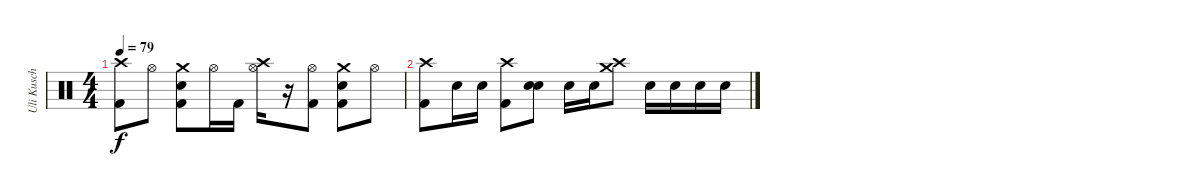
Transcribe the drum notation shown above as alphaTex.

\track ("Uli Kusch" "Uli Kusch") {instrument percussion}
\staff {score}
\articulation defaults
\ts (4 4)
\tempo 79
\clef neutral
\ks c
("Kick (hit) 2" "Crash high (hit)").8{dy f} "Hi-Hat (open)".8 ("Snare (hit) 2" "Kick (hit) 2" "Crash medium (hit)").8 "Hi-Hat (open)".16 "Kick (hit) 2".16 ("Hi-Hat (open)" "Crash high (hit)").16 r.16 ("Kick (hit) 2" "Hi-Hat (open)").8 ("Kick (hit) 2" "Snare (hit) 2" "Crash medium (hit)").8 "Hi-Hat (open)".8 |
("Kick (hit) 2" "Crash high (hit)").8 "Snare (hit) 2".16 "Snare (hit) 2".16 ("Crash high (hit)" "Kick (hit) 2").8 ("Snare (hit) 2" "Snare (hit) 2").8 "Snare (hit) 2".16 "Snare (hit) 2".16 ("Crash high (hit)" "Crash medium (hit)").8 "Snare (hit) 2".16 "Snare (hit) 2".16 "Snare (hit) 2".16 "Snare (hit) 2".16
